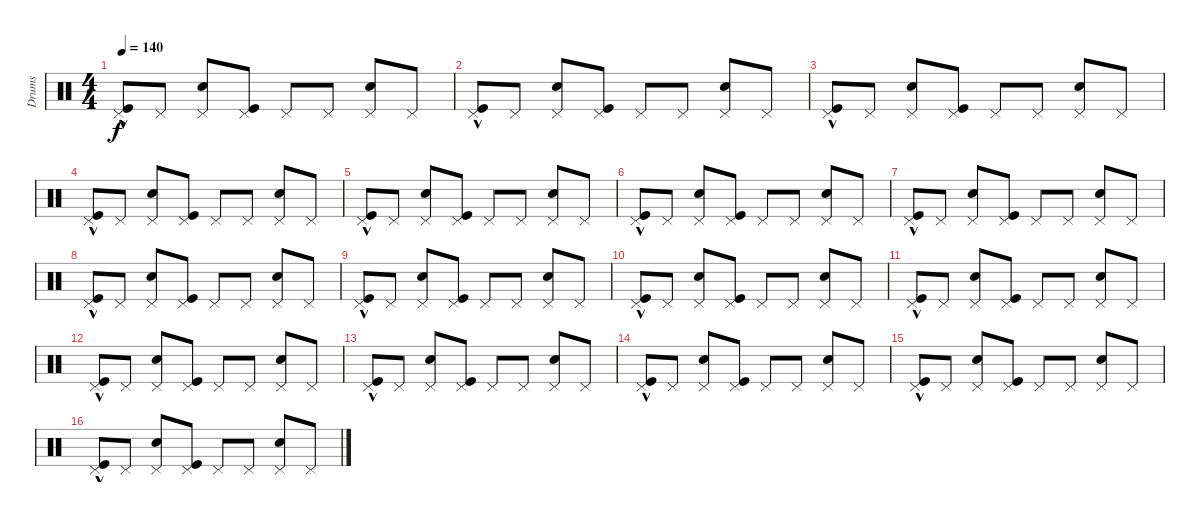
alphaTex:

\track ("Drums" "Drums") {instrument percussion}
\staff {score}
\articulation defaults
\ts (4 4)
\tempo 140
\clef neutral
\ks c
("Kick (hit)"{hac} "Pedal Hi-Hat (hit)").8{dy f} "Pedal Hi-Hat (hit)".8 ("Pedal Hi-Hat (hit)" "Snare (hit) 2").8 ("Kick (hit)" "Pedal Hi-Hat (hit)").8 "Pedal Hi-Hat (hit)".8 "Pedal Hi-Hat (hit)".8 ("Pedal Hi-Hat (hit)" "Snare (hit) 2").8 "Pedal Hi-Hat (hit)".8 |
("Kick (hit)"{hac} "Pedal Hi-Hat (hit)").8 "Pedal Hi-Hat (hit)".8 ("Pedal Hi-Hat (hit)" "Snare (hit) 2").8 ("Kick (hit)" "Pedal Hi-Hat (hit)").8 "Pedal Hi-Hat (hit)".8 "Pedal Hi-Hat (hit)".8 ("Pedal Hi-Hat (hit)" "Snare (hit) 2").8 "Pedal Hi-Hat (hit)".8 |
("Kick (hit)"{hac} "Pedal Hi-Hat (hit)").8 "Pedal Hi-Hat (hit)".8 ("Pedal Hi-Hat (hit)" "Snare (hit) 2").8 ("Kick (hit)" "Pedal Hi-Hat (hit)").8 "Pedal Hi-Hat (hit)".8 "Pedal Hi-Hat (hit)".8 ("Pedal Hi-Hat (hit)" "Snare (hit) 2").8 "Pedal Hi-Hat (hit)".8 |
("Kick (hit)"{hac} "Pedal Hi-Hat (hit)").8 "Pedal Hi-Hat (hit)".8 ("Pedal Hi-Hat (hit)" "Snare (hit) 2").8 ("Kick (hit)" "Pedal Hi-Hat (hit)").8 "Pedal Hi-Hat (hit)".8 "Pedal Hi-Hat (hit)".8 ("Pedal Hi-Hat (hit)" "Snare (hit) 2").8 "Pedal Hi-Hat (hit)".8 |
("Kick (hit)"{hac} "Pedal Hi-Hat (hit)").8 "Pedal Hi-Hat (hit)".8 ("Pedal Hi-Hat (hit)" "Snare (hit) 2").8 ("Kick (hit)" "Pedal Hi-Hat (hit)").8 "Pedal Hi-Hat (hit)".8 "Pedal Hi-Hat (hit)".8 ("Pedal Hi-Hat (hit)" "Snare (hit) 2").8 "Pedal Hi-Hat (hit)".8 |
("Kick (hit)"{hac} "Pedal Hi-Hat (hit)").8 "Pedal Hi-Hat (hit)".8 ("Pedal Hi-Hat (hit)" "Snare (hit) 2").8 ("Kick (hit)" "Pedal Hi-Hat (hit)").8 "Pedal Hi-Hat (hit)".8 "Pedal Hi-Hat (hit)".8 ("Pedal Hi-Hat (hit)" "Snare (hit) 2").8 "Pedal Hi-Hat (hit)".8 |
("Kick (hit)"{hac} "Pedal Hi-Hat (hit)").8 "Pedal Hi-Hat (hit)".8 ("Pedal Hi-Hat (hit)" "Snare (hit) 2").8 ("Kick (hit)" "Pedal Hi-Hat (hit)").8 "Pedal Hi-Hat (hit)".8 "Pedal Hi-Hat (hit)".8 ("Pedal Hi-Hat (hit)" "Snare (hit) 2").8 "Pedal Hi-Hat (hit)".8 |
("Kick (hit)"{hac} "Pedal Hi-Hat (hit)").8 "Pedal Hi-Hat (hit)".8 ("Pedal Hi-Hat (hit)" "Snare (hit) 2").8 ("Kick (hit)" "Pedal Hi-Hat (hit)").8 "Pedal Hi-Hat (hit)".8 "Pedal Hi-Hat (hit)".8 ("Pedal Hi-Hat (hit)" "Snare (hit) 2").8 "Pedal Hi-Hat (hit)".8 |
("Kick (hit)"{hac} "Pedal Hi-Hat (hit)").8 "Pedal Hi-Hat (hit)".8 ("Pedal Hi-Hat (hit)" "Snare (hit) 2").8 ("Kick (hit)" "Pedal Hi-Hat (hit)").8 "Pedal Hi-Hat (hit)".8 "Pedal Hi-Hat (hit)".8 ("Pedal Hi-Hat (hit)" "Snare (hit) 2").8 "Pedal Hi-Hat (hit)".8 |
("Kick (hit)"{hac} "Pedal Hi-Hat (hit)").8 "Pedal Hi-Hat (hit)".8 ("Pedal Hi-Hat (hit)" "Snare (hit) 2").8 ("Kick (hit)" "Pedal Hi-Hat (hit)").8 "Pedal Hi-Hat (hit)".8 "Pedal Hi-Hat (hit)".8 ("Pedal Hi-Hat (hit)" "Snare (hit) 2").8 "Pedal Hi-Hat (hit)".8 |
("Kick (hit)"{hac} "Pedal Hi-Hat (hit)").8 "Pedal Hi-Hat (hit)".8 ("Pedal Hi-Hat (hit)" "Snare (hit) 2").8 ("Kick (hit)" "Pedal Hi-Hat (hit)").8 "Pedal Hi-Hat (hit)".8 "Pedal Hi-Hat (hit)".8 ("Pedal Hi-Hat (hit)" "Snare (hit) 2").8 "Pedal Hi-Hat (hit)".8 |
("Kick (hit)"{hac} "Pedal Hi-Hat (hit)").8 "Pedal Hi-Hat (hit)".8 ("Pedal Hi-Hat (hit)" "Snare (hit) 2").8 ("Kick (hit)" "Pedal Hi-Hat (hit)").8 "Pedal Hi-Hat (hit)".8 "Pedal Hi-Hat (hit)".8 ("Pedal Hi-Hat (hit)" "Snare (hit) 2").8 "Pedal Hi-Hat (hit)".8 |
("Kick (hit)"{hac} "Pedal Hi-Hat (hit)").8 "Pedal Hi-Hat (hit)".8 ("Pedal Hi-Hat (hit)" "Snare (hit) 2").8 ("Kick (hit)" "Pedal Hi-Hat (hit)").8 "Pedal Hi-Hat (hit)".8 "Pedal Hi-Hat (hit)".8 ("Pedal Hi-Hat (hit)" "Snare (hit) 2").8 "Pedal Hi-Hat (hit)".8 |
("Kick (hit)"{hac} "Pedal Hi-Hat (hit)").8 "Pedal Hi-Hat (hit)".8 ("Pedal Hi-Hat (hit)" "Snare (hit) 2").8 ("Kick (hit)" "Pedal Hi-Hat (hit)").8 "Pedal Hi-Hat (hit)".8 "Pedal Hi-Hat (hit)".8 ("Pedal Hi-Hat (hit)" "Snare (hit) 2").8 "Pedal Hi-Hat (hit)".8 |
("Kick (hit)"{hac} "Pedal Hi-Hat (hit)").8 "Pedal Hi-Hat (hit)".8 ("Pedal Hi-Hat (hit)" "Snare (hit) 2").8 ("Kick (hit)" "Pedal Hi-Hat (hit)").8 "Pedal Hi-Hat (hit)".8 "Pedal Hi-Hat (hit)".8 ("Pedal Hi-Hat (hit)" "Snare (hit) 2").8 "Pedal Hi-Hat (hit)".8 |
("Kick (hit)"{hac} "Pedal Hi-Hat (hit)").8 "Pedal Hi-Hat (hit)".8 ("Pedal Hi-Hat (hit)" "Snare (hit) 2").8 ("Kick (hit)" "Pedal Hi-Hat (hit)").8 "Pedal Hi-Hat (hit)".8 "Pedal Hi-Hat (hit)".8 ("Pedal Hi-Hat (hit)" "Snare (hit) 2").8 "Pedal Hi-Hat (hit)".8
